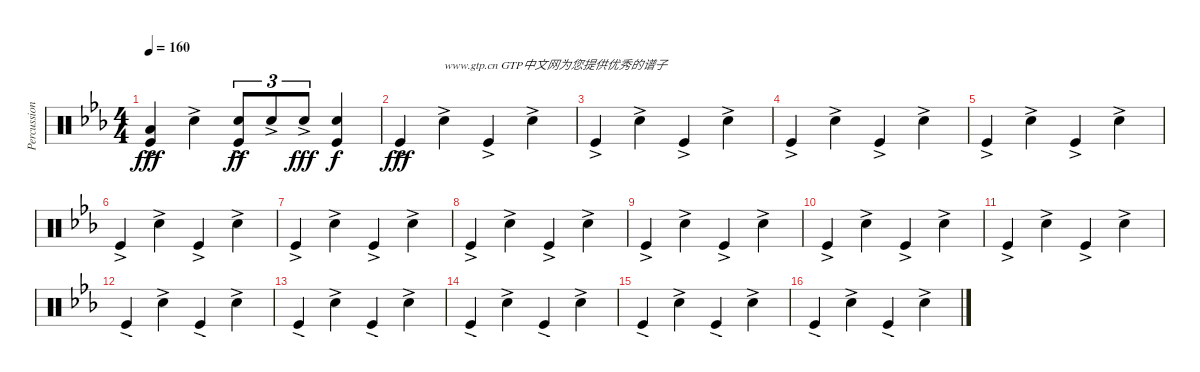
\track ("Percussion" "Percussion") {instrument percussion}
\staff {score}
\articulation defaults
\ts (4 4)
\tempo 160
\clef neutral
\ks eb
("Kick (hit)"{ac} "Low Tom (hit)"{ac}).4{dy fff} "Snare (hit) 2"{ac}.4 ("Kick (hit)" "Snare (hit) 2"{ac}).8{tu (3 2) dy ff} "Snare (hit) 2"{ac}.8{tu (3 2)} "Snare (hit) 2"{ac}.8{tu (3 2) dy fff} ("Kick (hit)" "Snare (hit) 2").4{dy f} |
"Kick (hit)"{ac}.4{dy fff} "Snare (hit) 2"{ac}.4{txt "www.gtp.cn GTP中文网为您提供优秀的谱子"} "Kick (hit)"{ac}.4 "Snare (hit) 2"{ac}.4 |
"Kick (hit)"{ac}.4 "Snare (hit) 2"{ac}.4 "Kick (hit)"{ac}.4 "Snare (hit) 2"{ac}.4 |
"Kick (hit)"{ac}.4 "Snare (hit) 2"{ac}.4 "Kick (hit)"{ac}.4 "Snare (hit) 2"{ac}.4 |
"Kick (hit)"{ac}.4 "Snare (hit) 2"{ac}.4 "Kick (hit)"{ac}.4 "Snare (hit) 2"{ac}.4 |
"Kick (hit)"{ac}.4 "Snare (hit) 2"{ac}.4 "Kick (hit)"{ac}.4 "Snare (hit) 2"{ac}.4 |
"Kick (hit)"{ac}.4 "Snare (hit) 2"{ac}.4 "Kick (hit)"{ac}.4 "Snare (hit) 2"{ac}.4 |
"Kick (hit)"{ac}.4 "Snare (hit) 2"{ac}.4 "Kick (hit)"{ac}.4 "Snare (hit) 2"{ac}.4 |
"Kick (hit)"{ac}.4 "Snare (hit) 2"{ac}.4 "Kick (hit)"{ac}.4 "Snare (hit) 2"{ac}.4 |
"Kick (hit)"{ac}.4 "Snare (hit) 2"{ac}.4 "Kick (hit)"{ac}.4 "Snare (hit) 2"{ac}.4 |
"Kick (hit)"{ac}.4 "Snare (hit) 2"{ac}.4 "Kick (hit)"{ac}.4 "Snare (hit) 2"{ac}.4 |
"Kick (hit)"{ac}.4 "Snare (hit) 2"{ac}.4 "Kick (hit)"{ac}.4 "Snare (hit) 2"{ac}.4 |
"Kick (hit)"{ac}.4 "Snare (hit) 2"{ac}.4 "Kick (hit)"{ac}.4 "Snare (hit) 2"{ac}.4 |
"Kick (hit)"{ac}.4 "Snare (hit) 2"{ac}.4 "Kick (hit)"{ac}.4 "Snare (hit) 2"{ac}.4 |
"Kick (hit)"{ac}.4 "Snare (hit) 2"{ac}.4 "Kick (hit)"{ac}.4 "Snare (hit) 2"{ac}.4 |
"Kick (hit)"{ac}.4 "Snare (hit) 2"{ac}.4 "Kick (hit)"{ac}.4 "Snare (hit) 2"{ac}.4
